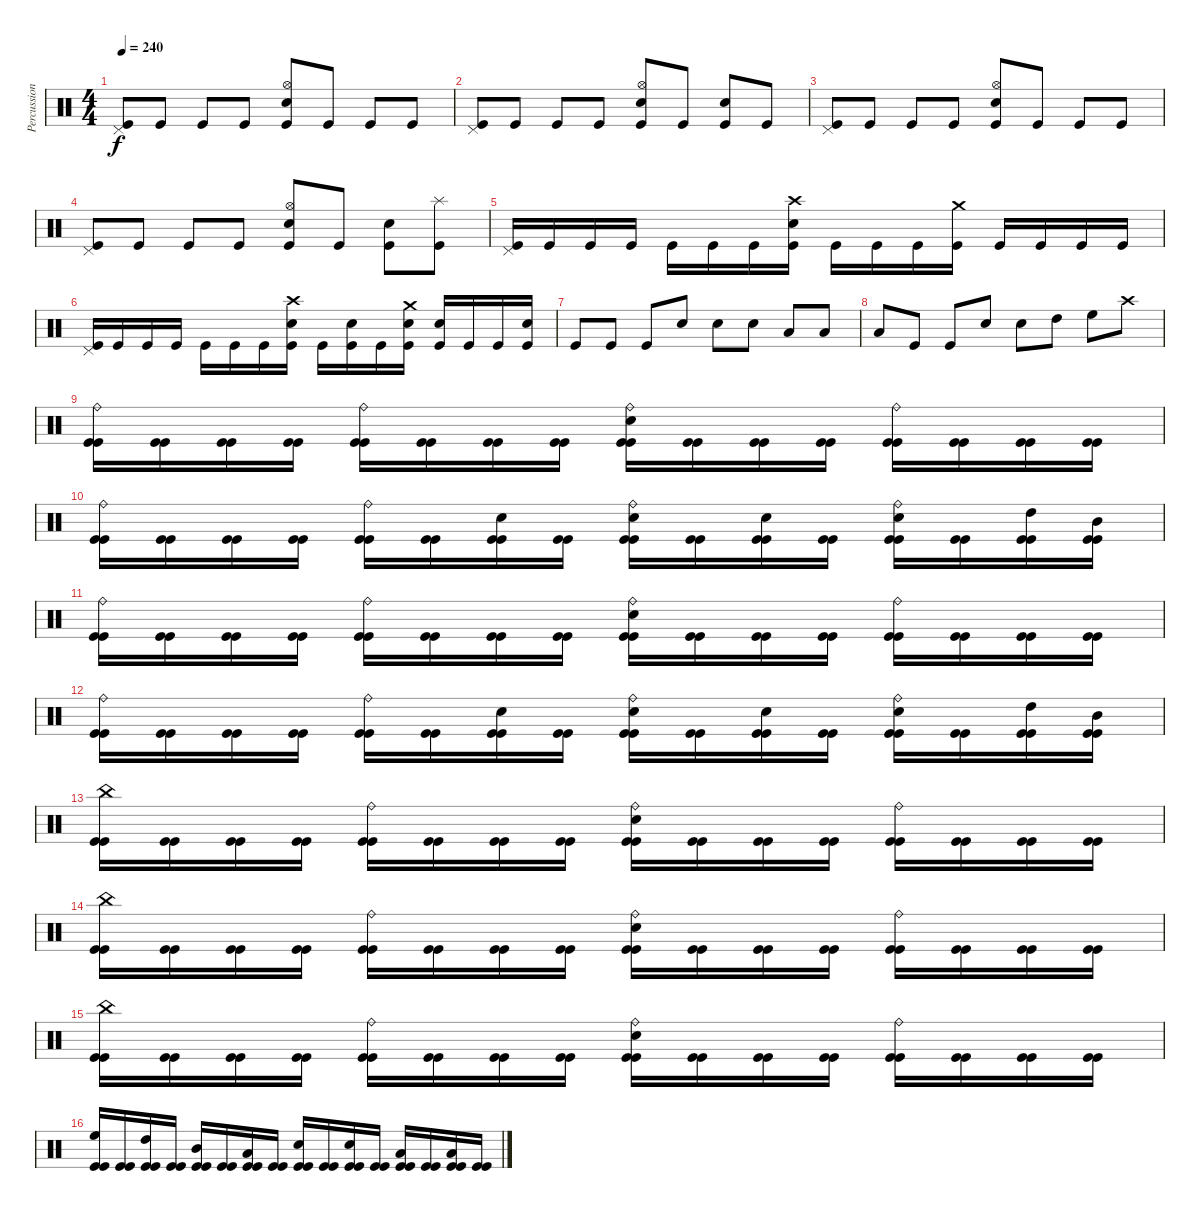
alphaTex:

\track ("Percussion" "Percussion") {instrument percussion}
\staff {score}
\articulation defaults
\ts (4 4)
\tempo 240
\clef neutral
\ks c
("Pedal Hi-Hat (hit)" "Kick (hit)").8{dy f} "Kick (hit)".8 "Kick (hit)".8 "Kick (hit)".8 ("Hi-Hat (open)" "Snare (hit) 2" "Kick (hit)").8 "Kick (hit)".8 "Kick (hit)".8 "Kick (hit)".8 |
("Pedal Hi-Hat (hit)" "Kick (hit)").8 "Kick (hit)".8 "Kick (hit)".8 "Kick (hit)".8 ("Hi-Hat (open)" "Snare (hit) 2" "Kick (hit)").8 "Kick (hit)".8 ("Snare (hit) 2" "Kick (hit)").8 "Kick (hit)".8 |
("Pedal Hi-Hat (hit)" "Kick (hit)").8 "Kick (hit)".8 "Kick (hit)".8 "Kick (hit)".8 ("Hi-Hat (open)" "Snare (hit) 2" "Kick (hit)").8 "Kick (hit)".8 "Kick (hit)".8 "Kick (hit)".8 |
("Pedal Hi-Hat (hit)" "Kick (hit)").8 "Kick (hit)".8 "Kick (hit)".8 "Kick (hit)".8 ("Hi-Hat (open)" "Snare (hit) 2" "Kick (hit)").8 "Kick (hit)".8 ("Snare (hit) 2" "Kick (hit)").8 ("Splash (hit)" "Kick (hit)").8 |
("Pedal Hi-Hat (hit)" "Kick (hit)").16 "Kick (hit)".16 "Kick (hit)".16 "Kick (hit)".16 "Kick (hit)".16 "Kick (hit)".16 "Kick (hit)".16 ("Crash high (hit)" "Snare (hit) 2" "Kick (hit)").16 "Kick (hit)".16 "Kick (hit)".16 "Kick (hit)".16 ("Crash medium (hit)" "Kick (hit)").16 "Kick (hit)".16 "Kick (hit)".16 "Kick (hit)".16 "Kick (hit)".16 |
("Pedal Hi-Hat (hit)" "Kick (hit)").16 "Kick (hit)".16 "Kick (hit)".16 "Kick (hit)".16 "Kick (hit)".16 "Kick (hit)".16 "Kick (hit)".16 ("Crash high (hit)" "Snare (hit) 2" "Kick (hit)").16 "Kick (hit)".16 ("Snare (hit) 2" "Kick (hit)").16 "Kick (hit)".16 ("Crash medium (hit)" "Snare (hit) 2" "Kick (hit)").16 ("Snare (hit) 2" "Kick (hit)").16 "Kick (hit)".16 "Kick (hit)".16 ("Snare (hit) 2" "Kick (hit)").16 |
"Kick (hit)".8 "Kick (hit)".8 "Kick (hit)".8 "Snare (hit) 2".8 "Snare (hit) 2".8 "Snare (hit) 2".8 "Low Floor Tom (hit)".8 "Low Floor Tom (hit)".8 |
"Low Floor Tom (hit)".8 "Kick (hit)".8 "Kick (hit)".8 "Snare (hit) 2".8 "Snare (hit) 2".8 "High Tom (hit)".8 "High Floor Tom (hit)".8 "Crash high (hit)".8 |
("Ride (bell)" "Kick (hit)" "Kick (hit)").16 ("Kick (hit)" "Kick (hit)").16 ("Kick (hit)" "Kick (hit)").16 ("Kick (hit)" "Kick (hit)").16 ("Ride (bell)" "Kick (hit)" "Kick (hit)").16 ("Kick (hit)" "Kick (hit)").16 ("Kick (hit)" "Kick (hit)").16 ("Kick (hit)" "Kick (hit)").16 ("Ride (bell)" "Snare (hit) 2" "Kick (hit)" "Kick (hit)").16 ("Kick (hit)" "Kick (hit)").16 ("Kick (hit)" "Kick (hit)").16 ("Kick (hit)" "Kick (hit)").16 ("Ride (bell)" "Kick (hit)" "Kick (hit)").16 ("Kick (hit)" "Kick (hit)").16 ("Kick (hit)" "Kick (hit)").16 ("Kick (hit)" "Kick (hit)").16 |
("Ride (bell)" "Kick (hit)" "Kick (hit)").16 ("Kick (hit)" "Kick (hit)").16 ("Kick (hit)" "Kick (hit)").16 ("Kick (hit)" "Kick (hit)").16 ("Ride (bell)" "Kick (hit)" "Kick (hit)").16 ("Kick (hit)" "Kick (hit)").16 ("Snare (hit) 2" "Kick (hit)" "Kick (hit)").16 ("Kick (hit)" "Kick (hit)").16 ("Ride (bell)" "Snare (hit) 2" "Kick (hit)" "Kick (hit)").16 ("Kick (hit)" "Kick (hit)").16 ("Snare (hit) 2" "Kick (hit)" "Kick (hit)").16 ("Kick (hit)" "Kick (hit)").16 ("Ride (bell)" "Snare (hit) 2" "Kick (hit)" "Kick (hit)").16 ("Kick (hit)" "Kick (hit)").16 ("High Tom (hit)" "Kick (hit)" "Kick (hit)").16 ("Mid Tom (hit)" "Kick (hit)" "Kick (hit)").16 |
("Ride (bell)" "Kick (hit)" "Kick (hit)").16 ("Kick (hit)" "Kick (hit)").16 ("Kick (hit)" "Kick (hit)").16 ("Kick (hit)" "Kick (hit)").16 ("Ride (bell)" "Kick (hit)" "Kick (hit)").16 ("Kick (hit)" "Kick (hit)").16 ("Kick (hit)" "Kick (hit)").16 ("Kick (hit)" "Kick (hit)").16 ("Ride (bell)" "Snare (hit) 2" "Kick (hit)" "Kick (hit)").16 ("Kick (hit)" "Kick (hit)").16 ("Kick (hit)" "Kick (hit)").16 ("Kick (hit)" "Kick (hit)").16 ("Ride (bell)" "Kick (hit)" "Kick (hit)").16 ("Kick (hit)" "Kick (hit)").16 ("Kick (hit)" "Kick (hit)").16 ("Kick (hit)" "Kick (hit)").16 |
("Ride (bell)" "Kick (hit)" "Kick (hit)").16 ("Kick (hit)" "Kick (hit)").16 ("Kick (hit)" "Kick (hit)").16 ("Kick (hit)" "Kick (hit)").16 ("Ride (bell)" "Kick (hit)" "Kick (hit)").16 ("Kick (hit)" "Kick (hit)").16 ("Snare (hit) 2" "Kick (hit)" "Kick (hit)").16 ("Kick (hit)" "Kick (hit)").16 ("Ride (bell)" "Snare (hit) 2" "Kick (hit)" "Kick (hit)").16 ("Kick (hit)" "Kick (hit)").16 ("Snare (hit) 2" "Kick (hit)" "Kick (hit)").16 ("Kick (hit)" "Kick (hit)").16 ("Ride (bell)" "Snare (hit) 2" "Kick (hit)" "Kick (hit)").16 ("Kick (hit)" "Kick (hit)").16 ("High Tom (hit)" "Kick (hit)" "Kick (hit)").16 ("Mid Tom (hit)" "Kick (hit)" "Kick (hit)").16 |
("China (hit)" "Kick (hit)" "Kick (hit)").16 ("Kick (hit)" "Kick (hit)").16 ("Kick (hit)" "Kick (hit)").16 ("Kick (hit)" "Kick (hit)").16 ("Ride (bell)" "Kick (hit)" "Kick (hit)").16 ("Kick (hit)" "Kick (hit)").16 ("Kick (hit)" "Kick (hit)").16 ("Kick (hit)" "Kick (hit)").16 ("Ride (bell)" "Snare (hit) 2" "Kick (hit)" "Kick (hit)").16 ("Kick (hit)" "Kick (hit)").16 ("Kick (hit)" "Kick (hit)").16 ("Kick (hit)" "Kick (hit)").16 ("Ride (bell)" "Kick (hit)" "Kick (hit)").16 ("Kick (hit)" "Kick (hit)").16 ("Kick (hit)" "Kick (hit)").16 ("Kick (hit)" "Kick (hit)").16 |
("China (hit)" "Kick (hit)" "Kick (hit)").16 ("Kick (hit)" "Kick (hit)").16 ("Kick (hit)" "Kick (hit)").16 ("Kick (hit)" "Kick (hit)").16 ("Ride (bell)" "Kick (hit)" "Kick (hit)").16 ("Kick (hit)" "Kick (hit)").16 ("Kick (hit)" "Kick (hit)").16 ("Kick (hit)" "Kick (hit)").16 ("Ride (bell)" "Snare (hit) 2" "Kick (hit)" "Kick (hit)").16 ("Kick (hit)" "Kick (hit)").16 ("Kick (hit)" "Kick (hit)").16 ("Kick (hit)" "Kick (hit)").16 ("Ride (bell)" "Kick (hit)" "Kick (hit)").16 ("Kick (hit)" "Kick (hit)").16 ("Kick (hit)" "Kick (hit)").16 ("Kick (hit)" "Kick (hit)").16 |
("China (hit)" "Kick (hit)" "Kick (hit)").16 ("Kick (hit)" "Kick (hit)").16 ("Kick (hit)" "Kick (hit)").16 ("Kick (hit)" "Kick (hit)").16 ("Ride (bell)" "Kick (hit)" "Kick (hit)").16 ("Kick (hit)" "Kick (hit)").16 ("Kick (hit)" "Kick (hit)").16 ("Kick (hit)" "Kick (hit)").16 ("Ride (bell)" "Snare (hit) 2" "Kick (hit)" "Kick (hit)").16 ("Kick (hit)" "Kick (hit)").16 ("Kick (hit)" "Kick (hit)").16 ("Kick (hit)" "Kick (hit)").16 ("Ride (bell)" "Kick (hit)" "Kick (hit)").16 ("Kick (hit)" "Kick (hit)").16 ("Kick (hit)" "Kick (hit)").16 ("Kick (hit)" "Kick (hit)").16 |
("High Floor Tom (hit)" "Kick (hit)" "Kick (hit)").16 ("Kick (hit)" "Kick (hit)").16 ("High Tom (hit)" "Kick (hit)" "Kick (hit)").16 ("Kick (hit)" "Kick (hit)").16 ("Mid Tom (hit)" "Kick (hit)" "Kick (hit)").16 ("Kick (hit)" "Kick (hit)").16 ("Low Tom (hit)" "Kick (hit)" "Kick (hit)").16 ("Kick (hit)" "Kick (hit)").16 ("Snare (hit) 2" "Kick (hit)" "Kick (hit)").16 ("Kick (hit)" "Kick (hit)").16 ("Snare (hit) 2" "Kick (hit)" "Kick (hit)").16 ("Kick (hit)" "Kick (hit)").16 ("Low Tom (hit)" "Kick (hit)" "Kick (hit)").16 ("Kick (hit)" "Kick (hit)").16 ("Low Floor Tom (hit)" "Kick (hit)" "Kick (hit)").16 ("Kick (hit)" "Kick (hit)").16
